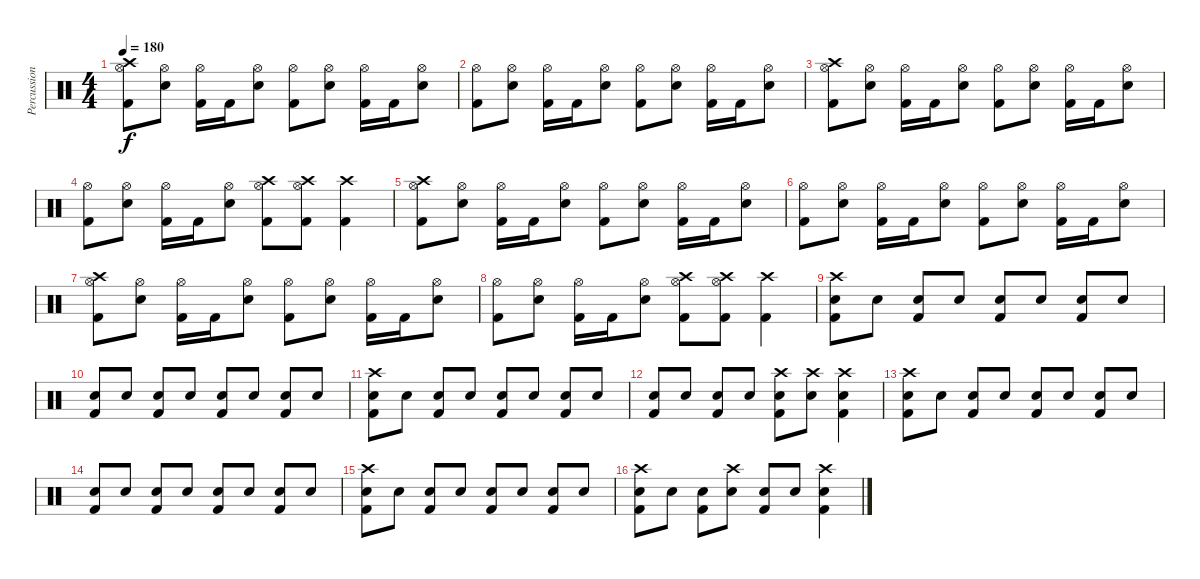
\track ("Percussion" "Percussion") {instrument percussion}
\staff {score}
\articulation defaults
\ts (4 4)
\tempo 180
\clef neutral
\ks c
("Crash high (hit)" "Hi-Hat (open)" "Kick (hit) 2").8{dy f} ("Hi-Hat (open)" "Snare (hit) 2").8 ("Hi-Hat (open)" "Kick (hit) 2").16 "Kick (hit) 2".16 ("Hi-Hat (open)" "Snare (hit) 2").8 ("Hi-Hat (open)" "Kick (hit) 2").8 ("Hi-Hat (open)" "Snare (hit) 2").8 ("Hi-Hat (open)" "Kick (hit) 2").16 "Kick (hit) 2".16 ("Hi-Hat (open)" "Snare (hit) 2").8 |
("Hi-Hat (open)" "Kick (hit) 2").8 ("Hi-Hat (open)" "Snare (hit) 2").8 ("Hi-Hat (open)" "Kick (hit) 2").16 "Kick (hit) 2".16 ("Hi-Hat (open)" "Snare (hit) 2").8 ("Hi-Hat (open)" "Kick (hit) 2").8 ("Hi-Hat (open)" "Snare (hit) 2").8 ("Hi-Hat (open)" "Kick (hit) 2").16 "Kick (hit) 2".16 ("Hi-Hat (open)" "Snare (hit) 2").8 |
("Crash high (hit)" "Hi-Hat (open)" "Kick (hit) 2").8 ("Hi-Hat (open)" "Snare (hit) 2").8 ("Hi-Hat (open)" "Kick (hit) 2").16 "Kick (hit) 2".16 ("Hi-Hat (open)" "Snare (hit) 2").8 ("Hi-Hat (open)" "Kick (hit) 2").8 ("Hi-Hat (open)" "Snare (hit) 2").8 ("Hi-Hat (open)" "Kick (hit) 2").16 "Kick (hit) 2".16 ("Hi-Hat (open)" "Snare (hit) 2").8 |
("Hi-Hat (open)" "Kick (hit) 2").8 ("Hi-Hat (open)" "Snare (hit) 2").8 ("Hi-Hat (open)" "Kick (hit) 2").16 "Kick (hit) 2".16 ("Hi-Hat (open)" "Snare (hit) 2").8 ("Crash high (hit)" "Hi-Hat (open)" "Kick (hit) 2").8 ("Crash high (hit)" "Hi-Hat (open)" "Kick (hit) 2").8 ("Crash high (hit)" "Kick (hit) 2").4 |
("Crash high (hit)" "Hi-Hat (open)" "Kick (hit) 2").8 ("Hi-Hat (open)" "Snare (hit) 2").8 ("Hi-Hat (open)" "Kick (hit) 2").16 "Kick (hit) 2".16 ("Hi-Hat (open)" "Snare (hit) 2").8 ("Hi-Hat (open)" "Kick (hit) 2").8 ("Hi-Hat (open)" "Snare (hit) 2").8 ("Hi-Hat (open)" "Kick (hit) 2").16 "Kick (hit) 2".16 ("Hi-Hat (open)" "Snare (hit) 2").8 |
("Hi-Hat (open)" "Kick (hit) 2").8 ("Hi-Hat (open)" "Snare (hit) 2").8 ("Hi-Hat (open)" "Kick (hit) 2").16 "Kick (hit) 2".16 ("Hi-Hat (open)" "Snare (hit) 2").8 ("Hi-Hat (open)" "Kick (hit) 2").8 ("Hi-Hat (open)" "Snare (hit) 2").8 ("Hi-Hat (open)" "Kick (hit) 2").16 "Kick (hit) 2".16 ("Hi-Hat (open)" "Snare (hit) 2").8 |
("Crash high (hit)" "Hi-Hat (open)" "Kick (hit) 2").8 ("Hi-Hat (open)" "Snare (hit) 2").8 ("Hi-Hat (open)" "Kick (hit) 2").16 "Kick (hit) 2".16 ("Hi-Hat (open)" "Snare (hit) 2").8 ("Hi-Hat (open)" "Kick (hit) 2").8 ("Hi-Hat (open)" "Snare (hit) 2").8 ("Hi-Hat (open)" "Kick (hit) 2").16 "Kick (hit) 2".16 ("Hi-Hat (open)" "Snare (hit) 2").8 |
("Hi-Hat (open)" "Kick (hit) 2").8 ("Hi-Hat (open)" "Snare (hit) 2").8 ("Hi-Hat (open)" "Kick (hit) 2").16 "Kick (hit) 2".16 ("Hi-Hat (open)" "Snare (hit) 2").8 ("Crash high (hit)" "Hi-Hat (open)" "Kick (hit) 2").8 ("Crash high (hit)" "Hi-Hat (open)" "Kick (hit) 2").8 ("Crash high (hit)" "Kick (hit) 2").4 |
("Crash high (hit)" "Snare (hit) 2" "Kick (hit) 2").8 "Snare (hit) 2".8 ("Snare (hit) 2" "Kick (hit) 2").8 "Snare (hit) 2".8 ("Snare (hit) 2" "Kick (hit) 2").8 "Snare (hit) 2".8 ("Snare (hit) 2" "Kick (hit) 2").8 "Snare (hit) 2".8 |
("Snare (hit) 2" "Kick (hit) 2").8 "Snare (hit) 2".8 ("Snare (hit) 2" "Kick (hit) 2").8 "Snare (hit) 2".8 ("Snare (hit) 2" "Kick (hit) 2").8 "Snare (hit) 2".8 ("Snare (hit) 2" "Kick (hit) 2").8 "Snare (hit) 2".8 |
("Crash high (hit)" "Snare (hit) 2" "Kick (hit) 2").8 "Snare (hit) 2".8 ("Snare (hit) 2" "Kick (hit) 2").8 "Snare (hit) 2".8 ("Snare (hit) 2" "Kick (hit) 2").8 "Snare (hit) 2".8 ("Snare (hit) 2" "Kick (hit) 2").8 "Snare (hit) 2".8 |
("Snare (hit) 2" "Kick (hit) 2").8 "Snare (hit) 2".8 ("Snare (hit) 2" "Kick (hit) 2").8 "Snare (hit) 2".8 ("Crash high (hit)" "Snare (hit) 2" "Kick (hit) 2").8 ("Crash high (hit)" "Snare (hit) 2").8 ("Crash high (hit)" "Snare (hit) 2" "Kick (hit) 2").4 |
("Crash high (hit)" "Snare (hit) 2" "Kick (hit) 2").8 "Snare (hit) 2".8 ("Snare (hit) 2" "Kick (hit) 2").8 "Snare (hit) 2".8 ("Snare (hit) 2" "Kick (hit) 2").8 "Snare (hit) 2".8 ("Snare (hit) 2" "Kick (hit) 2").8 "Snare (hit) 2".8 |
("Snare (hit) 2" "Kick (hit) 2").8 "Snare (hit) 2".8 ("Snare (hit) 2" "Kick (hit) 2").8 "Snare (hit) 2".8 ("Snare (hit) 2" "Kick (hit) 2").8 "Snare (hit) 2".8 ("Snare (hit) 2" "Kick (hit) 2").8 "Snare (hit) 2".8 |
("Crash high (hit)" "Snare (hit) 2" "Kick (hit) 2").8 "Snare (hit) 2".8 ("Snare (hit) 2" "Kick (hit) 2").8 "Snare (hit) 2".8 ("Snare (hit) 2" "Kick (hit) 2").8 "Snare (hit) 2".8 ("Snare (hit) 2" "Kick (hit) 2").8 "Snare (hit) 2".8 |
("Crash high (hit)" "Snare (hit) 2" "Kick (hit) 2").8 "Snare (hit) 2".8 ("Snare (hit) 2" "Kick (hit) 2").8 ("Crash high (hit)" "Snare (hit) 2").8 ("Snare (hit) 2" "Kick (hit) 2").8 "Snare (hit) 2".8 ("Crash high (hit)" "Snare (hit) 2" "Kick (hit) 2").4
